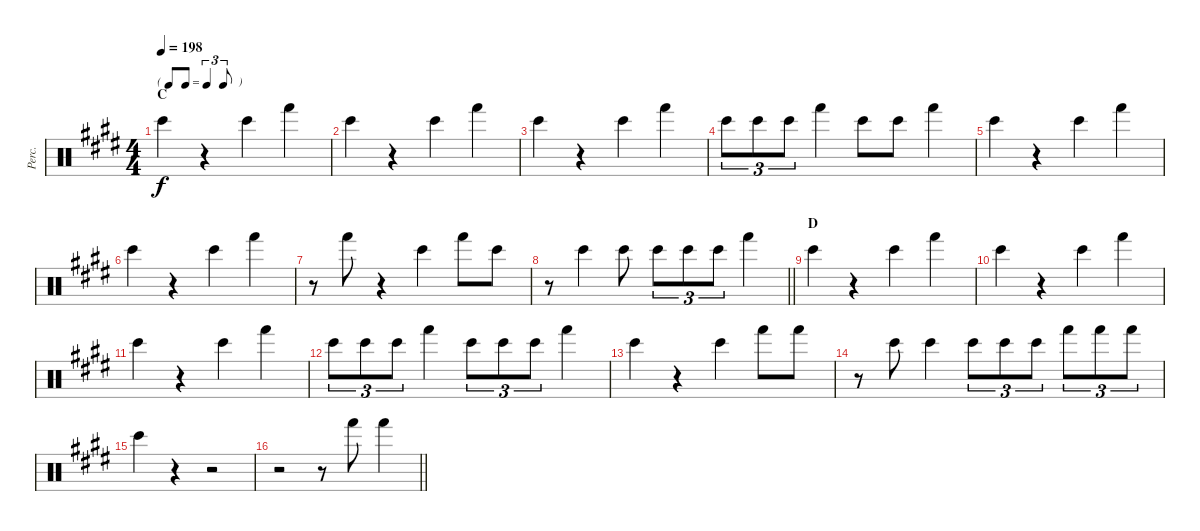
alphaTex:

\track ("Perc." "Perc.") {instrument percussion}
\staff {score}
\articulation defaults
\ts (4 4)
\tf triplet8th
\section ("" "C")
\tempo 198
\clef neutral
\ks e "Bongo High (hit)".4{dy f}
r.4 "Bongo High (hit)".4 "Hand (hit)".4 |
"Bongo High (hit)".4 r.4 "Bongo High (hit)".4 "Hand (hit)".4 |
"Bongo High (hit)".4 r.4 "Bongo High (hit)".4 "Hand (hit)".4 |
"Bongo High (hit)".8{tu (3 2)} "Bongo High (hit)".8{tu (3 2)} "Bongo High (hit)".8{tu (3 2)} "Hand (hit)".4 "Bongo High (hit)".8 "Bongo High (hit)".8 "Hand (hit)".4 |
"Bongo High (hit)".4 r.4 "Bongo High (hit)".4 "Hand (hit)".4 |
"Bongo High (hit)".4 r.4 "Bongo High (hit)".4 "Hand (hit)".4 |
r.8 "Hand (hit)".8 r.4 "Bongo High (hit)".4 "Hand (hit)".8 "Bongo High (hit)".8 |
\barLineRight lightlight
r.8 "Bongo High (hit)".4 "Bongo High (hit)".8 "Bongo High (hit)".8{tu (3 2)} "Bongo High (hit)".8{tu (3 2)} "Bongo High (hit)".8{tu (3 2)} "Hand (hit)".4 |
\section ("" "D")
"Bongo High (hit)".4 r.4 "Bongo High (hit)".4 "Hand (hit)".4 |
"Bongo High (hit)".4 r.4 "Bongo High (hit)".4 "Hand (hit)".4 |
"Bongo High (hit)".4 r.4 "Bongo High (hit)".4 "Hand (hit)".4 |
"Bongo High (hit)".8{tu (3 2)} "Bongo High (hit)".8{tu (3 2)} "Bongo High (hit)".8{tu (3 2)} "Hand (hit)".4 "Bongo High (hit)".8{tu (3 2)} "Bongo High (hit)".8{tu (3 2)} "Bongo High (hit)".8{tu (3 2)} "Hand (hit)".4 |
"Bongo High (hit)".4 r.4 "Bongo High (hit)".4 "Hand (hit)".8 "Hand (hit)".8 |
r.8 "Bongo High (hit)".8 "Bongo High (hit)".4 "Bongo High (hit)".8{tu (3 2)} "Bongo High (hit)".8{tu (3 2)} "Bongo High (hit)".8{tu (3 2)} "Hand (hit)".8{tu (3 2)} "Hand (hit)".8{tu (3 2)} "Hand (hit)".8{tu (3 2)} |
"Bongo High (hit)".4 r.4 r.2 |
\barLineRight lightlight
r.2 r.8 "Hand (hit)".8 "Hand (hit)".4
